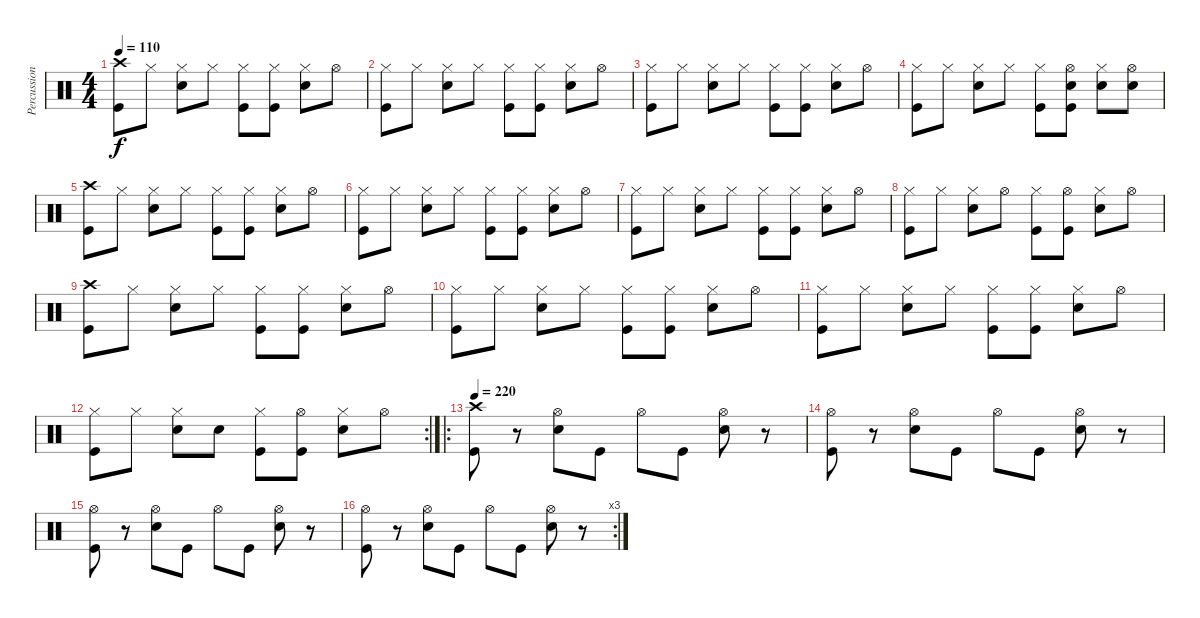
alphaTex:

\track ("Percussion" "Percussion") {instrument percussion}
\staff {score}
\articulation defaults
\ts (4 4)
\tempo 110
\clef neutral
\ks c
("Kick (hit)" "Crash high (hit)").8{dy f} "Hi-Hat (closed)".8 ("Snare (hit) 2" "Hi-Hat (closed)").8 "Hi-Hat (closed)".8 ("Kick (hit)" "Hi-Hat (closed)").8 ("Kick (hit)" "Hi-Hat (closed)").8 ("Snare (hit) 2" "Hi-Hat (closed)").8 "Hi-Hat (open)".8 |
("Kick (hit)" "Hi-Hat (closed)").8 "Hi-Hat (closed)".8 ("Snare (hit) 2" "Hi-Hat (closed)").8 "Hi-Hat (closed)".8 ("Kick (hit)" "Hi-Hat (closed)").8 ("Kick (hit)" "Hi-Hat (closed)").8 ("Snare (hit) 2" "Hi-Hat (closed)").8 "Hi-Hat (open)".8 |
("Kick (hit)" "Hi-Hat (closed)").8 "Hi-Hat (closed)".8 ("Snare (hit) 2" "Hi-Hat (closed)").8 "Hi-Hat (closed)".8 ("Kick (hit)" "Hi-Hat (closed)").8 ("Kick (hit)" "Hi-Hat (closed)").8 ("Snare (hit) 2" "Hi-Hat (closed)").8 "Hi-Hat (open)".8 |
("Kick (hit)" "Hi-Hat (closed)").8 "Hi-Hat (closed)".8 ("Snare (hit) 2" "Hi-Hat (closed)").8 "Hi-Hat (closed)".8 ("Kick (hit)" "Hi-Hat (closed)").8 ("Kick (hit)" "Hi-Hat (open)" "Snare (hit) 2").8 ("Snare (hit) 2" "Hi-Hat (closed)").8 ("Snare (hit) 2" "Hi-Hat (open)").8 |
("Kick (hit)" "Crash high (hit)").8 "Hi-Hat (closed)".8 ("Snare (hit) 2" "Hi-Hat (closed)").8 "Hi-Hat (closed)".8 ("Kick (hit)" "Hi-Hat (closed)").8 ("Kick (hit)" "Hi-Hat (closed)").8 ("Snare (hit) 2" "Hi-Hat (closed)").8 "Hi-Hat (open)".8 |
("Kick (hit)" "Hi-Hat (closed)").8 "Hi-Hat (closed)".8 ("Snare (hit) 2" "Hi-Hat (closed)").8 "Hi-Hat (closed)".8 ("Kick (hit)" "Hi-Hat (closed)").8 ("Kick (hit)" "Hi-Hat (closed)").8 ("Snare (hit) 2" "Hi-Hat (closed)").8 "Hi-Hat (open)".8 |
("Kick (hit)" "Hi-Hat (closed)").8 "Hi-Hat (closed)".8 ("Snare (hit) 2" "Hi-Hat (closed)").8 "Hi-Hat (closed)".8 ("Kick (hit)" "Hi-Hat (closed)").8 ("Kick (hit)" "Hi-Hat (closed)").8 ("Snare (hit) 2" "Hi-Hat (closed)").8 "Hi-Hat (open)".8 |
("Kick (hit)" "Hi-Hat (closed)").8 "Hi-Hat (closed)".8 ("Snare (hit) 2" "Hi-Hat (closed)").8 "Hi-Hat (open)".8 ("Kick (hit)" "Hi-Hat (closed)").8 ("Kick (hit)" "Hi-Hat (open)").8 ("Snare (hit) 2" "Hi-Hat (closed)").8 "Hi-Hat (open)".8 |
("Kick (hit)" "Crash high (hit)").8 "Hi-Hat (closed)".8 ("Snare (hit) 2" "Hi-Hat (closed)").8 "Hi-Hat (closed)".8 ("Kick (hit)" "Hi-Hat (closed)").8 ("Kick (hit)" "Hi-Hat (closed)").8 ("Snare (hit) 2" "Hi-Hat (closed)").8 "Hi-Hat (open)".8 |
("Kick (hit)" "Hi-Hat (closed)").8 "Hi-Hat (closed)".8 ("Snare (hit) 2" "Hi-Hat (closed)").8 "Hi-Hat (closed)".8 ("Kick (hit)" "Hi-Hat (closed)").8 ("Kick (hit)" "Hi-Hat (closed)").8 ("Snare (hit) 2" "Hi-Hat (closed)").8 "Hi-Hat (open)".8 |
("Kick (hit)" "Hi-Hat (closed)").8 "Hi-Hat (closed)".8 ("Snare (hit) 2" "Hi-Hat (closed)").8 "Hi-Hat (closed)".8 ("Kick (hit)" "Hi-Hat (closed)").8 ("Kick (hit)" "Hi-Hat (closed)").8 ("Snare (hit) 2" "Hi-Hat (closed)").8 "Hi-Hat (open)".8 |
\rc 2
("Kick (hit)" "Hi-Hat (closed)").8 "Hi-Hat (closed)".8 ("Snare (hit) 2" "Hi-Hat (closed)").8 "Snare (hit)".8 ("Kick (hit)" "Hi-Hat (closed)").8 ("Kick (hit)" "Hi-Hat (open)").8 ("Snare (hit) 2" "Hi-Hat (closed)").8 "Hi-Hat (open)".8 |
\ro
\tempo 220
("Crash high (hit)" "Kick (hit)").8 r.8 ("Snare (hit) 2" "Hi-Hat (open)").8 "Kick (hit)".8 "Hi-Hat (open)".8 "Kick (hit)".8 ("Snare (hit) 2" "Hi-Hat (open)").8 r.8 |
("Hi-Hat (open)" "Kick (hit)").8 r.8 ("Snare (hit) 2" "Hi-Hat (open)").8 "Kick (hit)".8 "Hi-Hat (open)".8 "Kick (hit)".8 ("Snare (hit) 2" "Hi-Hat (open)").8 r.8 |
("Hi-Hat (open)" "Kick (hit)").8 r.8 ("Snare (hit) 2" "Hi-Hat (open)").8 "Kick (hit)".8 "Hi-Hat (open)".8 "Kick (hit)".8 ("Snare (hit) 2" "Hi-Hat (open)").8 r.8 |
\rc 3
("Hi-Hat (open)" "Kick (hit)").8 r.8 ("Snare (hit) 2" "Hi-Hat (open)").8 "Kick (hit)".8 "Hi-Hat (open)".8 "Kick (hit)".8 ("Snare (hit) 2" "Hi-Hat (open)").8 r.8
